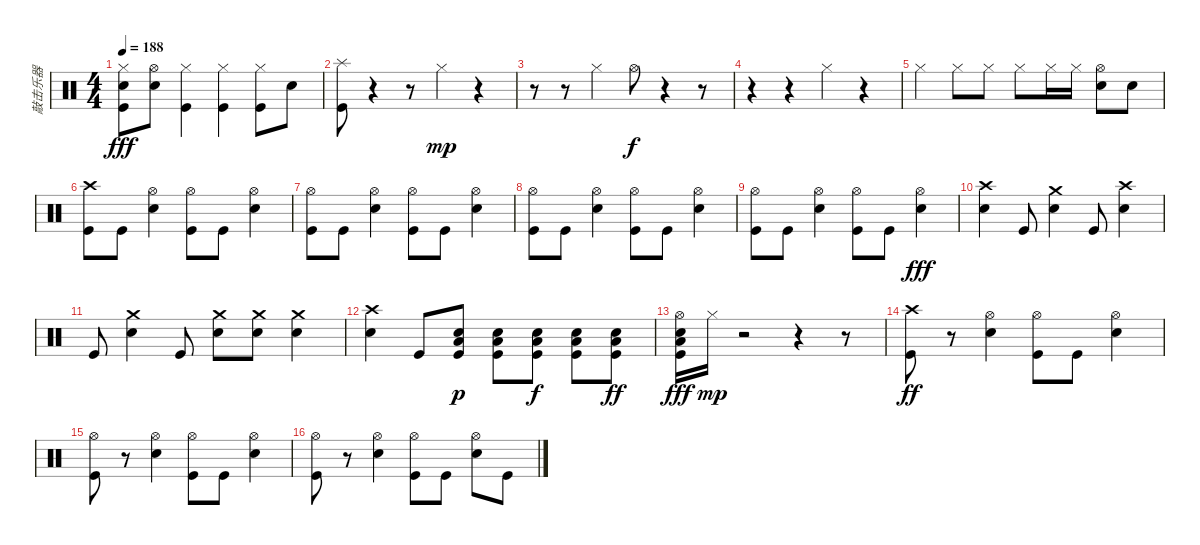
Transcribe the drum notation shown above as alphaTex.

\track ("敲击乐器" "敲击乐器") {instrument percussion}
\staff {score}
\articulation defaults
\ts (4 4)
\tempo 188
\clef neutral
\ks c
("Hi-Hat (closed)" "Snare (hit) 2" "Kick (hit)").8{dy fff} ("Hi-Hat (open)" "Snare (hit) 2").8 ("Hi-Hat (closed)" "Kick (hit)").4 ("Hi-Hat (closed)" "Kick (hit)").4 ("Hi-Hat (closed)" "Kick (hit)").8 "Snare (hit) 2".8 |
("Splash (hit)" "Kick (hit)").8 r.4 r.8 "Hi-Hat (closed)".4{dy mp} r.4 |
r.8 r.8 "Hi-Hat (closed)".4 "Hi-Hat (open)".8{dy f} r.4 r.8 |
r.4 r.4 "Hi-Hat (closed)".4 r.4 |
"Hi-Hat (closed)".4 "Hi-Hat (closed)".8 "Hi-Hat (closed)".8 "Hi-Hat (closed)".8 "Hi-Hat (closed)".16 "Hi-Hat (closed)".16 ("Snare (hit) 2" "Hi-Hat (open)").8 "Snare (hit) 2".8 |
("Crash high (hit)" "Kick (hit)").8 "Kick (hit)".8 ("Hi-Hat (open)" "Snare (hit) 2").4 ("Hi-Hat (open)" "Kick (hit)").8 "Kick (hit)".8 ("Hi-Hat (open)" "Snare (hit) 2").4 |
("Hi-Hat (open)" "Kick (hit)").8 "Kick (hit)".8 ("Hi-Hat (open)" "Snare (hit) 2").4 ("Hi-Hat (open)" "Kick (hit)").8 "Kick (hit)".8 ("Hi-Hat (open)" "Snare (hit) 2").4 |
("Hi-Hat (open)" "Kick (hit)").8 "Kick (hit)".8 ("Hi-Hat (open)" "Snare (hit) 2").4 ("Hi-Hat (open)" "Kick (hit)").8 "Kick (hit)".8 ("Hi-Hat (open)" "Snare (hit) 2").4 |
("Hi-Hat (open)" "Kick (hit)").8 "Kick (hit)".8 ("Hi-Hat (open)" "Snare (hit) 2").4 ("Hi-Hat (open)" "Kick (hit)").8 "Kick (hit)".8 ("Hi-Hat (open)" "Snare (hit) 2").4{dy fff} |
("Snare (hit) 2" "Crash high (hit)").4 "Kick (hit)".8 ("Snare (hit) 2" "Crash medium (hit)").4 "Kick (hit)".8 ("Snare (hit) 2" "Crash high (hit)").4 |
"Kick (hit)".8 ("Snare (hit) 2" "Crash medium (hit)").4 "Kick (hit)".8 ("Snare (hit) 2" "Crash medium (hit)").8 ("Snare (hit) 2" "Crash medium (hit)").8 ("Snare (hit) 2" "Crash medium (hit)").4 |
("Snare (hit) 2" "Crash high (hit)").4 "Kick (hit)".8 ("Snare (hit) 2" "Low Tom (hit)" "Kick (hit)").8{dy p} ("Snare (hit) 2" "Low Tom (hit)" "Kick (hit)").8 ("Snare (hit) 2" "Low Tom (hit)" "Kick (hit)").8{dy f} ("Snare (hit) 2" "Low Tom (hit)" "Kick (hit)").8 ("Snare (hit) 2" "Low Tom (hit)" "Kick (hit)").8{dy ff} |
("Snare (hit) 2" "Low Tom (hit)" "Hi-Hat (open)" "Kick (hit)").16{dy fff} "Hi-Hat (closed)".16{dy mp} r.2 r.4 r.8 |
("Crash high (hit)" "Kick (hit)").8{dy ff} r.8 ("Hi-Hat (open)" "Snare (hit) 2").4 ("Hi-Hat (open)" "Kick (hit)").8 "Kick (hit)".8 ("Hi-Hat (open)" "Snare (hit) 2").4 |
("Hi-Hat (open)" "Kick (hit)").8 r.8 ("Hi-Hat (open)" "Snare (hit) 2").4 ("Hi-Hat (open)" "Kick (hit)").8 "Kick (hit)".8 ("Hi-Hat (open)" "Snare (hit) 2").4 |
("Hi-Hat (open)" "Kick (hit)").8 r.8 ("Hi-Hat (open)" "Snare (hit) 2").4 ("Hi-Hat (open)" "Kick (hit)").8 "Kick (hit)".8 ("Hi-Hat (open)" "Snare (hit) 2").8 "Kick (hit)".8
